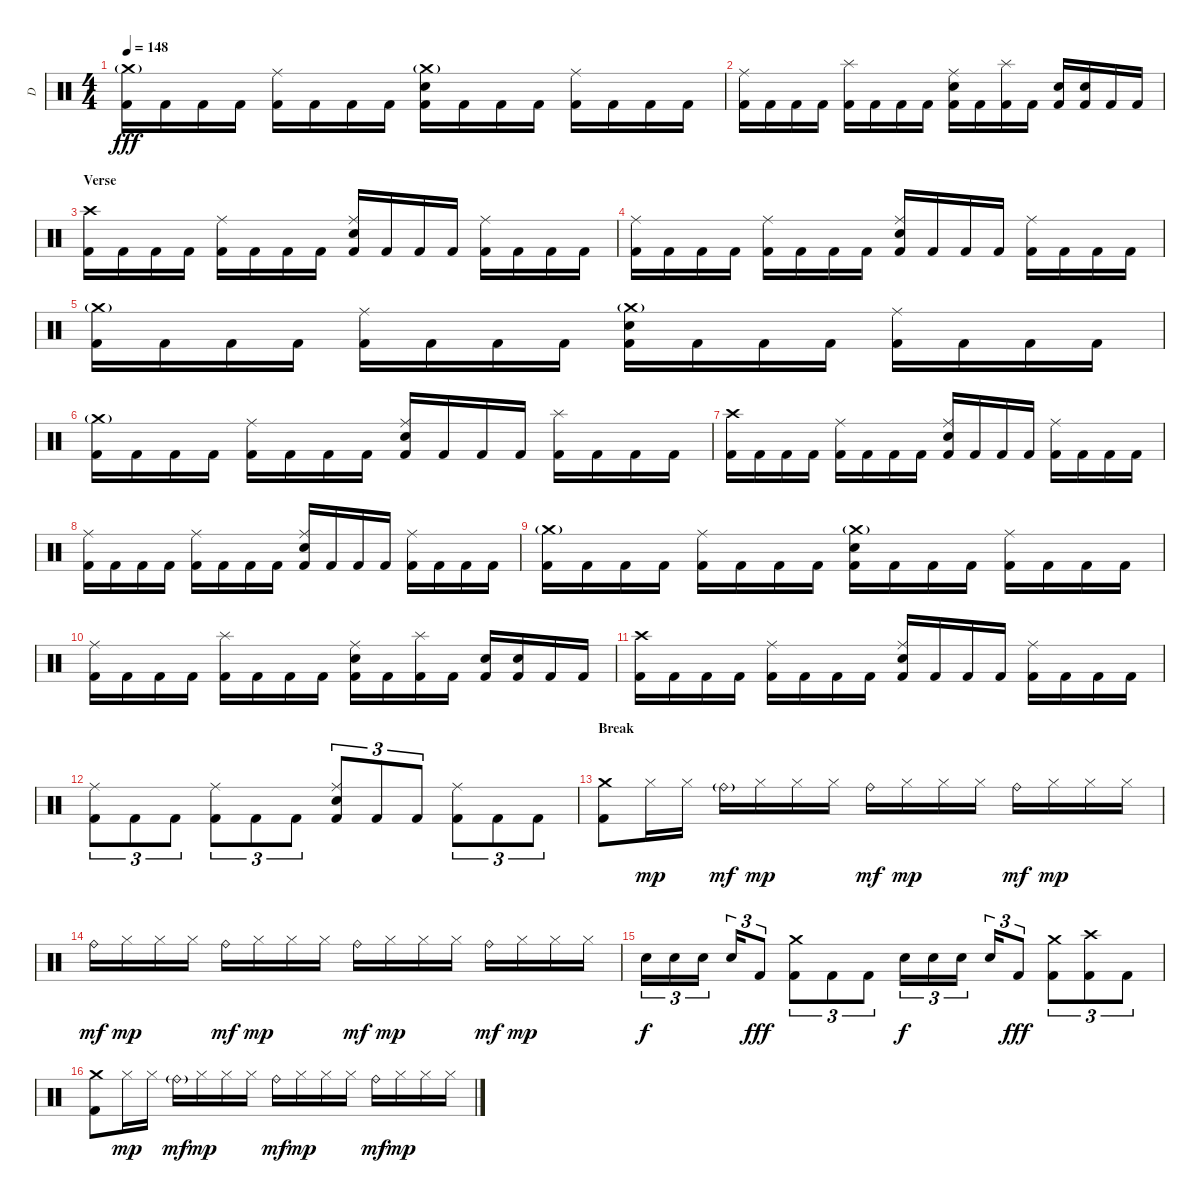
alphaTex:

\track ("D" "D") {instrument percussion}
\staff {score}
\articulation defaults
\ts (4 4)
\tempo 148
\clef neutral
\ks c
("Crash medium (hit)"{g} "Kick (hit) 2").16{dy fff} "Kick (hit) 2".16 "Kick (hit) 2".16 "Kick (hit) 2".16 ("Ride (middle)" "Kick (hit) 2").16 "Kick (hit) 2".16 "Kick (hit) 2".16 "Kick (hit) 2".16 ("Crash medium (hit)"{g} "Electric Snare (hit)" "Kick (hit) 2").16 "Kick (hit) 2".16 "Kick (hit) 2".16 "Kick (hit) 2".16 ("Ride (middle)" "Kick (hit) 2").16 "Kick (hit) 2".16 "Kick (hit) 2".16 "Kick (hit) 2".16 |
("Ride (middle)" "Kick (hit) 2").16 "Kick (hit) 2".16 "Kick (hit) 2".16 "Kick (hit) 2".16 ("Splash (hit)" "Kick (hit) 2").16 "Kick (hit) 2".16 "Kick (hit) 2".16 "Kick (hit) 2".16 ("Ride (middle)" "Electric Snare (hit)" "Kick (hit) 2").16 "Kick (hit) 2".16 ("Splash (hit)" "Kick (hit) 2").16 "Kick (hit) 2".16 ("Electric Snare (hit)" "Kick (hit) 2").16 ("Electric Snare (hit)" "Kick (hit) 2").16 "Kick (hit) 2".16 "Kick (hit) 2".16 |
\section ("" "Verse")
("Crash high (hit)" "Kick (hit) 2").16 "Kick (hit) 2".16 "Kick (hit) 2".16 "Kick (hit) 2".16 ("Ride (middle)" "Kick (hit) 2").16 "Kick (hit) 2".16 "Kick (hit) 2".16 "Kick (hit) 2".16 ("Ride (middle)" "Electric Snare (hit)" "Kick (hit) 2").16 "Kick (hit) 2".16 "Kick (hit) 2".16 "Kick (hit) 2".16 ("Ride (middle)" "Kick (hit) 2").16 "Kick (hit) 2".16 "Kick (hit) 2".16 "Kick (hit) 2".16 |
("Ride (middle)" "Kick (hit) 2").16 "Kick (hit) 2".16 "Kick (hit) 2".16 "Kick (hit) 2".16 ("Ride (middle)" "Kick (hit) 2").16 "Kick (hit) 2".16 "Kick (hit) 2".16 "Kick (hit) 2".16 ("Ride (middle)" "Electric Snare (hit)" "Kick (hit) 2").16 "Kick (hit) 2".16 "Kick (hit) 2".16 "Kick (hit) 2".16 ("Ride (middle)" "Kick (hit) 2").16 "Kick (hit) 2".16 "Kick (hit) 2".16 "Kick (hit) 2".16 |
("Crash medium (hit)"{g} "Kick (hit) 2").16 "Kick (hit) 2".16 "Kick (hit) 2".16 "Kick (hit) 2".16 ("Ride (middle)" "Kick (hit) 2").16 "Kick (hit) 2".16 "Kick (hit) 2".16 "Kick (hit) 2".16 ("Crash medium (hit)"{g} "Electric Snare (hit)" "Kick (hit) 2").16 "Kick (hit) 2".16 "Kick (hit) 2".16 "Kick (hit) 2".16 ("Ride (middle)" "Kick (hit) 2").16 "Kick (hit) 2".16 "Kick (hit) 2".16 "Kick (hit) 2".16 |
("Crash medium (hit)"{g} "Kick (hit) 2").16 "Kick (hit) 2".16 "Kick (hit) 2".16 "Kick (hit) 2".16 ("Ride (middle)" "Kick (hit) 2").16 "Kick (hit) 2".16 "Kick (hit) 2".16 "Kick (hit) 2".16 ("Ride (middle)" "Electric Snare (hit)" "Kick (hit) 2").16 "Kick (hit) 2".16 "Kick (hit) 2".16 "Kick (hit) 2".16 ("Splash (hit)" "Kick (hit) 2").16 "Kick (hit) 2".16 "Kick (hit) 2".16 "Kick (hit) 2".16 |
("Crash high (hit)" "Kick (hit) 2").16 "Kick (hit) 2".16 "Kick (hit) 2".16 "Kick (hit) 2".16 ("Ride (middle)" "Kick (hit) 2").16 "Kick (hit) 2".16 "Kick (hit) 2".16 "Kick (hit) 2".16 ("Ride (middle)" "Electric Snare (hit)" "Kick (hit) 2").16 "Kick (hit) 2".16 "Kick (hit) 2".16 "Kick (hit) 2".16 ("Ride (middle)" "Kick (hit) 2").16 "Kick (hit) 2".16 "Kick (hit) 2".16 "Kick (hit) 2".16 |
("Ride (middle)" "Kick (hit) 2").16 "Kick (hit) 2".16 "Kick (hit) 2".16 "Kick (hit) 2".16 ("Ride (middle)" "Kick (hit) 2").16 "Kick (hit) 2".16 "Kick (hit) 2".16 "Kick (hit) 2".16 ("Ride (middle)" "Electric Snare (hit)" "Kick (hit) 2").16 "Kick (hit) 2".16 "Kick (hit) 2".16 "Kick (hit) 2".16 ("Ride (middle)" "Kick (hit) 2").16 "Kick (hit) 2".16 "Kick (hit) 2".16 "Kick (hit) 2".16 |
("Crash medium (hit)"{g} "Kick (hit) 2").16 "Kick (hit) 2".16 "Kick (hit) 2".16 "Kick (hit) 2".16 ("Ride (middle)" "Kick (hit) 2").16 "Kick (hit) 2".16 "Kick (hit) 2".16 "Kick (hit) 2".16 ("Crash medium (hit)"{g} "Electric Snare (hit)" "Kick (hit) 2").16 "Kick (hit) 2".16 "Kick (hit) 2".16 "Kick (hit) 2".16 ("Ride (middle)" "Kick (hit) 2").16 "Kick (hit) 2".16 "Kick (hit) 2".16 "Kick (hit) 2".16 |
("Ride (middle)" "Kick (hit) 2").16 "Kick (hit) 2".16 "Kick (hit) 2".16 "Kick (hit) 2".16 ("Splash (hit)" "Kick (hit) 2").16 "Kick (hit) 2".16 "Kick (hit) 2".16 "Kick (hit) 2".16 ("Ride (middle)" "Electric Snare (hit)" "Kick (hit) 2").16 "Kick (hit) 2".16 ("Splash (hit)" "Kick (hit) 2").16 "Kick (hit) 2".16 ("Electric Snare (hit)" "Kick (hit) 2").16 ("Electric Snare (hit)" "Kick (hit) 2").16 "Kick (hit) 2".16 "Kick (hit) 2".16 |
("Crash high (hit)" "Kick (hit) 2").16 "Kick (hit) 2".16 "Kick (hit) 2".16 "Kick (hit) 2".16 ("Ride (middle)" "Kick (hit) 2").16 "Kick (hit) 2".16 "Kick (hit) 2".16 "Kick (hit) 2".16 ("Ride (middle)" "Electric Snare (hit)" "Kick (hit) 2").16 "Kick (hit) 2".16 "Kick (hit) 2".16 "Kick (hit) 2".16 ("Ride (middle)" "Kick (hit) 2").16 "Kick (hit) 2".16 "Kick (hit) 2".16 "Kick (hit) 2".16 |
("Ride (middle)" "Kick (hit) 2").8{tu (3 2)} "Kick (hit) 2".8{tu (3 2)} "Kick (hit) 2".8{tu (3 2)} ("Ride (middle)" "Kick (hit) 2").8{tu (3 2)} "Kick (hit) 2".8{tu (3 2)} "Kick (hit) 2".8{tu (3 2)} ("Ride (middle)" "Electric Snare (hit)" "Kick (hit) 2").8{tu (3 2)} "Kick (hit) 2".8{tu (3 2)} "Kick (hit) 2".8{tu (3 2)} ("Ride (middle)" "Kick (hit) 2").8{tu (3 2)} "Kick (hit) 2".8{tu (3 2)} "Kick (hit) 2".8{tu (3 2)} |
\section ("" "Break")
("Crash medium (hit)" "Kick (hit) 2").8 "Hi-Hat (closed)".16{dy mp} "Hi-Hat (closed)".16 "Ride (bell)"{g}.16{dy mf} "Hi-Hat (closed)".16{dy mp} "Hi-Hat (closed)".16 "Hi-Hat (closed)".16 "Ride (bell)".16{dy mf} "Hi-Hat (closed)".16{dy mp} "Hi-Hat (closed)".16 "Hi-Hat (closed)".16 "Ride (bell)".16{dy mf} "Hi-Hat (closed)".16{dy mp} "Hi-Hat (closed)".16 "Hi-Hat (closed)".16 |
"Ride (bell)".16{dy mf} "Hi-Hat (closed)".16{dy mp} "Hi-Hat (closed)".16 "Hi-Hat (closed)".16 "Ride (bell)".16{dy mf} "Hi-Hat (closed)".16{dy mp} "Hi-Hat (closed)".16 "Hi-Hat (closed)".16 "Ride (bell)".16{dy mf} "Hi-Hat (closed)".16{dy mp} "Hi-Hat (closed)".16 "Hi-Hat (closed)".16 "Ride (bell)".16{dy mf} "Hi-Hat (closed)".16{dy mp} "Hi-Hat (closed)".16 "Hi-Hat (closed)".16 |
"Electric Snare (hit)".16{tu (3 2) dy f} "Electric Snare (hit)".16{tu (3 2)} "Electric Snare (hit)".16{tu (3 2)} "Electric Snare (hit)".16{tu (3 2)} "Kick (hit) 2".8{tu (3 2) dy fff} ("Crash medium (hit)" "Kick (hit) 2").8{tu (3 2)} "Kick (hit) 2".8{tu (3 2)} "Kick (hit) 2".8{tu (3 2)} "Electric Snare (hit)".16{tu (3 2) dy f} "Electric Snare (hit)".16{tu (3 2)} "Electric Snare (hit)".16{tu (3 2)} "Electric Snare (hit)".16{tu (3 2)} "Kick (hit) 2".8{tu (3 2) dy fff} ("Crash medium (hit)" "Kick (hit) 2").8{tu (3 2)} ("Crash high (hit)" "Kick (hit) 2").8{tu (3 2)} "Kick (hit) 2".8{tu (3 2)} |
("Crash medium (hit)" "Kick (hit) 2").8 "Hi-Hat (closed)".16{dy mp} "Hi-Hat (closed)".16 "Ride (bell)"{g}.16{dy mf} "Hi-Hat (closed)".16{dy mp} "Hi-Hat (closed)".16 "Hi-Hat (closed)".16 "Ride (bell)".16{dy mf} "Hi-Hat (closed)".16{dy mp} "Hi-Hat (closed)".16 "Hi-Hat (closed)".16 "Ride (bell)".16{dy mf} "Hi-Hat (closed)".16{dy mp} "Hi-Hat (closed)".16 "Hi-Hat (closed)".16
